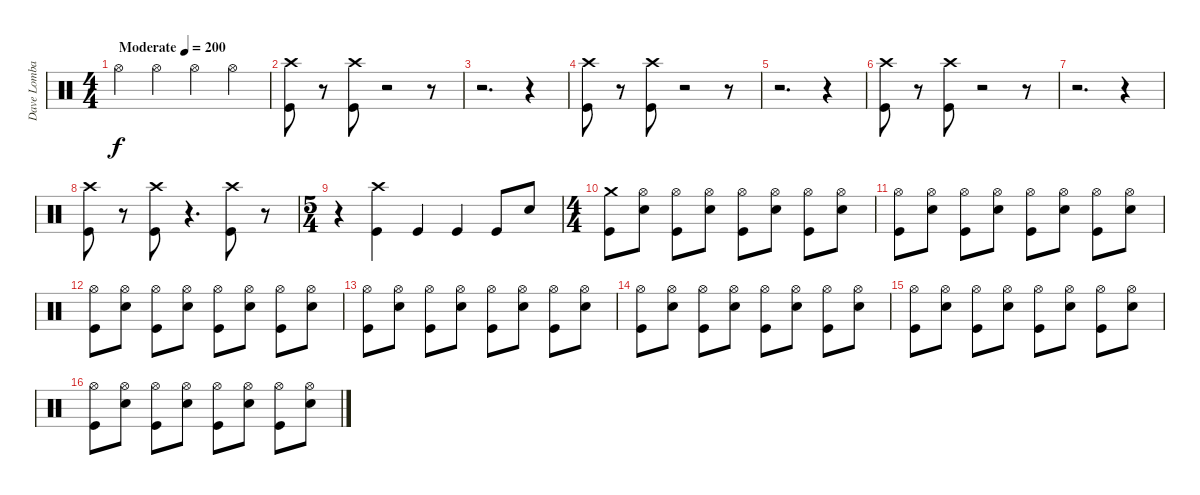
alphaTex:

\track ("Dave Lombardo" "Dave Lomba") {instrument percussion}
\staff {score}
\articulation defaults
\ts (4 4)
\tempo (200 "Moderate")
\clef neutral
\ks c "Hi-Hat (open)".4{dy f} "Hi-Hat (open)".4 "Hi-Hat (open)".4 "Hi-Hat (open)".4
|
("Crash high (hit)" "Kick (hit)").8 r.8{volume 0} ("Crash high (hit)" "Kick (hit)").8{volume 16} r.2{volume 0} r.8 |
r.2{d} r.4{volume 16} |
("Crash high (hit)" "Kick (hit)").8 r.8{volume 0} ("Crash high (hit)" "Kick (hit)").8{volume 16} r.2{volume 0} r.8 |
r.2{d} r.4{volume 16} |
("Crash high (hit)" "Kick (hit)").8 r.8{volume 0} ("Crash high (hit)" "Kick (hit)").8{volume 16} r.2{volume 0} r.8 |
r.2{d} r.4{volume 16} |
("Crash high (hit)" "Kick (hit)").8 r.8{volume 0} ("Crash high (hit)" "Kick (hit)").8{volume 16} r.4{d volume 0} ("Crash high (hit)" "Kick (hit)").8{volume 16} r.8{volume 0} |
\ts (5 4)
r.4 ("Crash high (hit)" "Kick (hit)").4{volume 16} "Kick (hit)".4 "Kick (hit)".4 "Kick (hit)".8 "Snare (hit) 2".8 |
\ts (4 4)
("Crash medium (hit)" "Kick (hit)").8 ("Hi-Hat (open)" "Snare (hit) 2").8 ("Hi-Hat (open)" "Kick (hit)").8 ("Hi-Hat (open)" "Snare (hit) 2").8 ("Hi-Hat (open)" "Kick (hit)").8 ("Hi-Hat (open)" "Snare (hit) 2").8 ("Hi-Hat (open)" "Kick (hit)").8 ("Hi-Hat (open)" "Snare (hit) 2").8 |
("Hi-Hat (open)" "Kick (hit)").8 ("Hi-Hat (open)" "Snare (hit) 2").8 ("Hi-Hat (open)" "Kick (hit)").8 ("Hi-Hat (open)" "Snare (hit) 2").8 ("Hi-Hat (open)" "Kick (hit)").8 ("Hi-Hat (open)" "Snare (hit) 2").8 ("Hi-Hat (open)" "Kick (hit)").8 ("Hi-Hat (open)" "Snare (hit) 2").8 |
("Hi-Hat (open)" "Kick (hit)").8 ("Hi-Hat (open)" "Snare (hit) 2").8 ("Hi-Hat (open)" "Kick (hit)").8 ("Hi-Hat (open)" "Snare (hit) 2").8 ("Hi-Hat (open)" "Kick (hit)").8 ("Hi-Hat (open)" "Snare (hit) 2").8 ("Hi-Hat (open)" "Kick (hit)").8 ("Hi-Hat (open)" "Snare (hit) 2").8 |
("Hi-Hat (open)" "Kick (hit)").8 ("Hi-Hat (open)" "Snare (hit) 2").8 ("Hi-Hat (open)" "Kick (hit)").8 ("Hi-Hat (open)" "Snare (hit) 2").8 ("Hi-Hat (open)" "Kick (hit)").8 ("Hi-Hat (open)" "Snare (hit) 2").8 ("Hi-Hat (open)" "Kick (hit)").8 ("Hi-Hat (open)" "Snare (hit) 2").8 |
("Hi-Hat (open)" "Kick (hit)").8 ("Hi-Hat (open)" "Snare (hit) 2").8 ("Hi-Hat (open)" "Kick (hit)").8 ("Hi-Hat (open)" "Snare (hit) 2").8 ("Hi-Hat (open)" "Kick (hit)").8 ("Hi-Hat (open)" "Snare (hit) 2").8 ("Hi-Hat (open)" "Kick (hit)").8 ("Hi-Hat (open)" "Snare (hit) 2").8 |
("Hi-Hat (open)" "Kick (hit)").8 ("Hi-Hat (open)" "Snare (hit) 2").8 ("Hi-Hat (open)" "Kick (hit)").8 ("Hi-Hat (open)" "Snare (hit) 2").8 ("Hi-Hat (open)" "Kick (hit)").8 ("Hi-Hat (open)" "Snare (hit) 2").8 ("Hi-Hat (open)" "Kick (hit)").8 ("Hi-Hat (open)" "Snare (hit) 2").8 |
("Hi-Hat (open)" "Kick (hit)").8 ("Hi-Hat (open)" "Snare (hit) 2").8 ("Hi-Hat (open)" "Kick (hit)").8 ("Hi-Hat (open)" "Snare (hit) 2").8 ("Hi-Hat (open)" "Kick (hit)").8 ("Hi-Hat (open)" "Snare (hit) 2").8 ("Hi-Hat (open)" "Kick (hit)").8 ("Hi-Hat (open)" "Snare (hit) 2").8
